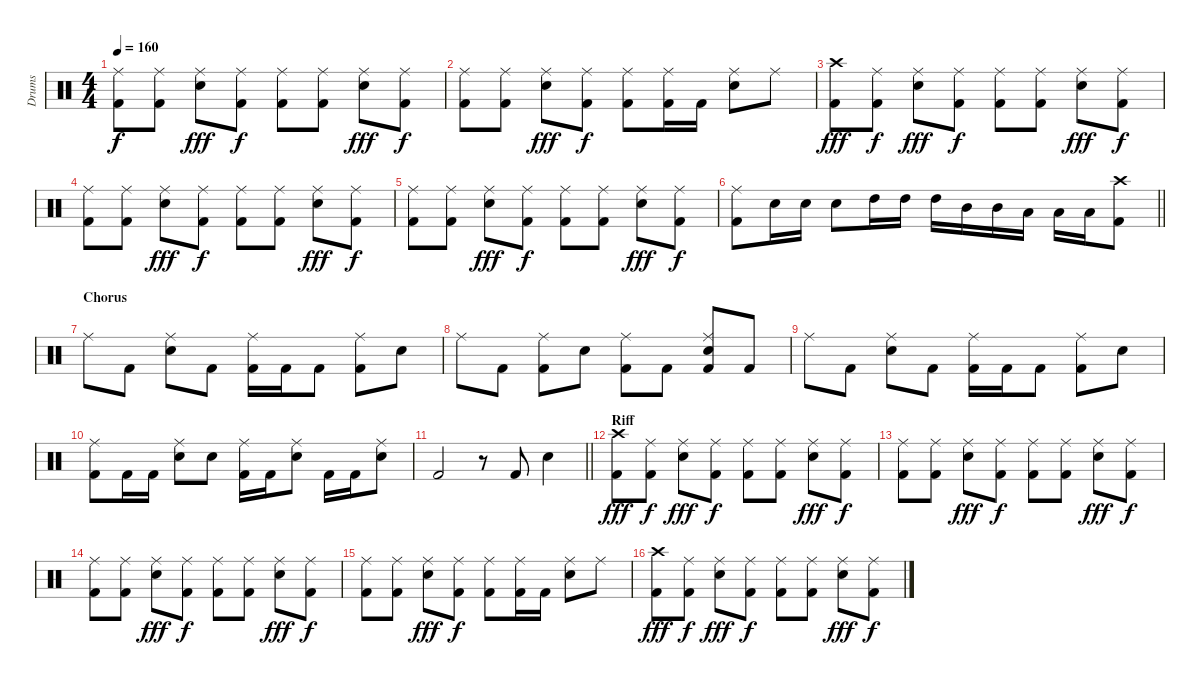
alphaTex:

\track ("Drums" "Drums") {instrument percussion}
\staff {score}
\articulation defaults
\ts (4 4)
\tempo 160
\clef neutral
\ks c
("Kick (hit) 2" "Ride (middle)").8{dy f} ("Kick (hit) 2" "Ride (middle)").8 ("Snare (hit) 2" "Ride (middle)").8{dy fff} ("Kick (hit) 2" "Ride (middle)").8{dy f} ("Kick (hit) 2" "Ride (middle)").8 ("Kick (hit) 2" "Ride (middle)").8 ("Snare (hit) 2" "Ride (middle)").8{dy fff} ("Kick (hit) 2" "Ride (middle)").8{dy f} |
("Kick (hit) 2" "Ride (middle)").8 ("Kick (hit) 2" "Ride (middle)").8 ("Snare (hit) 2" "Ride (middle)").8{dy fff} ("Kick (hit) 2" "Ride (middle)").8{dy f} ("Kick (hit) 2" "Ride (middle)").8 ("Kick (hit) 2" "Ride (middle)").16 "Kick (hit) 2".16 ("Snare (hit) 2" "Ride (middle)").8 "Ride (middle)".8 |
("Kick (hit) 2" "Crash high (hit)").8{dy fff} ("Kick (hit) 2" "Ride (middle)").8{dy f} ("Snare (hit) 2" "Ride (middle)").8{dy fff} ("Kick (hit) 2" "Ride (middle)").8{dy f} ("Kick (hit) 2" "Ride (middle)").8 ("Kick (hit) 2" "Ride (middle)").8 ("Snare (hit) 2" "Ride (middle)").8{dy fff} ("Kick (hit) 2" "Ride (middle)").8{dy f} |
("Kick (hit) 2" "Ride (middle)").8 ("Kick (hit) 2" "Ride (middle)").8 ("Snare (hit) 2" "Ride (middle)").8{dy fff} ("Kick (hit) 2" "Ride (middle)").8{dy f} ("Kick (hit) 2" "Ride (middle)").8 ("Kick (hit) 2" "Ride (middle)").8 ("Snare (hit) 2" "Ride (middle)").8{dy fff} ("Kick (hit) 2" "Ride (middle)").8{dy f} |
("Kick (hit) 2" "Ride (middle)").8 ("Kick (hit) 2" "Ride (middle)").8 ("Snare (hit) 2" "Ride (middle)").8{dy fff} ("Kick (hit) 2" "Ride (middle)").8{dy f} ("Kick (hit) 2" "Ride (middle)").8 ("Kick (hit) 2" "Ride (middle)").8 ("Snare (hit) 2" "Ride (middle)").8{dy fff} ("Kick (hit) 2" "Ride (middle)").8{dy f} |
\barLineRight lightlight
("Kick (hit) 2" "Ride (middle)").8 "Snare (hit) 2".16 "Snare (hit) 2".16 "Snare (hit) 2".8 "High Tom (hit)".16 "High Tom (hit)".16 "High Tom (hit)".16 "Mid Tom (hit)".16 "Mid Tom (hit)".16 "Low Tom (hit)".16 "Low Tom (hit)".16 "Low Tom (hit)".16 ("Kick (hit) 2" "Crash high (hit)").8 |
\section ("" "Chorus")
"Ride (middle)".8 "Kick (hit) 2".8 ("Snare (hit) 2" "Ride (middle)").8 "Kick (hit) 2".8 ("Kick (hit) 2" "Ride (middle)").16 "Kick (hit) 2".16 "Kick (hit) 2".8 ("Kick (hit) 2" "Ride (middle)").8 "Snare (hit) 2".8 |
"Ride (middle)".8 "Kick (hit) 2".8 ("Kick (hit) 2" "Ride (middle)").8 "Snare (hit) 2".8 ("Kick (hit) 2" "Ride (middle)").8 "Kick (hit) 2".8 ("Kick (hit) 2" "Snare (hit) 2" "Ride (middle)").8 "Kick (hit) 2".8 |
"Ride (middle)".8 "Kick (hit) 2".8 ("Snare (hit) 2" "Ride (middle)").8 "Kick (hit) 2".8 ("Kick (hit) 2" "Ride (middle)").16 "Kick (hit) 2".16 "Kick (hit) 2".8 ("Kick (hit) 2" "Ride (middle)").8 "Snare (hit) 2".8 |
("Kick (hit) 2" "Ride (middle)").8 "Kick (hit) 2".16 "Kick (hit) 2".16 ("Snare (hit) 2" "Ride (middle)").8 "Snare (hit) 2".8 ("Kick (hit) 2" "Ride (middle)").16 "Kick (hit) 2".16 ("Snare (hit) 2" "Ride (middle)").8 "Kick (hit) 2".16 "Kick (hit) 2".16 ("Snare (hit) 2" "Ride (middle)").8 |
\barLineRight lightlight "Kick (hit) 2".2
r.8 "Kick (hit) 2".8 "Snare (hit) 2".4 |
\section ("" "Riff")
("Kick (hit) 2" "Crash high (hit)").8{dy fff} ("Kick (hit) 2" "Ride (middle)").8{dy f} ("Snare (hit) 2" "Ride (middle)").8{dy fff} ("Kick (hit) 2" "Ride (middle)").8{dy f} ("Kick (hit) 2" "Ride (middle)").8 ("Kick (hit) 2" "Ride (middle)").8 ("Snare (hit) 2" "Ride (middle)").8{dy fff} ("Kick (hit) 2" "Ride (middle)").8{dy f} |
("Kick (hit) 2" "Ride (middle)").8 ("Kick (hit) 2" "Ride (middle)").8 ("Snare (hit) 2" "Ride (middle)").8{dy fff} ("Kick (hit) 2" "Ride (middle)").8{dy f} ("Kick (hit) 2" "Ride (middle)").8 ("Kick (hit) 2" "Ride (middle)").8 ("Snare (hit) 2" "Ride (middle)").8{dy fff} ("Kick (hit) 2" "Ride (middle)").8{dy f} |
("Kick (hit) 2" "Ride (middle)").8 ("Kick (hit) 2" "Ride (middle)").8 ("Snare (hit) 2" "Ride (middle)").8{dy fff} ("Kick (hit) 2" "Ride (middle)").8{dy f} ("Kick (hit) 2" "Ride (middle)").8 ("Kick (hit) 2" "Ride (middle)").8 ("Snare (hit) 2" "Ride (middle)").8{dy fff} ("Kick (hit) 2" "Ride (middle)").8{dy f} |
("Kick (hit) 2" "Ride (middle)").8 ("Kick (hit) 2" "Ride (middle)").8 ("Snare (hit) 2" "Ride (middle)").8{dy fff} ("Kick (hit) 2" "Ride (middle)").8{dy f} ("Kick (hit) 2" "Ride (middle)").8 ("Kick (hit) 2" "Ride (middle)").16 "Kick (hit) 2".16 ("Snare (hit) 2" "Ride (middle)").8 "Ride (middle)".8 |
("Kick (hit) 2" "Crash high (hit)").8{dy fff} ("Kick (hit) 2" "Ride (middle)").8{dy f} ("Snare (hit) 2" "Ride (middle)").8{dy fff} ("Kick (hit) 2" "Ride (middle)").8{dy f} ("Kick (hit) 2" "Ride (middle)").8 ("Kick (hit) 2" "Ride (middle)").8 ("Snare (hit) 2" "Ride (middle)").8{dy fff} ("Kick (hit) 2" "Ride (middle)").8{dy f}
